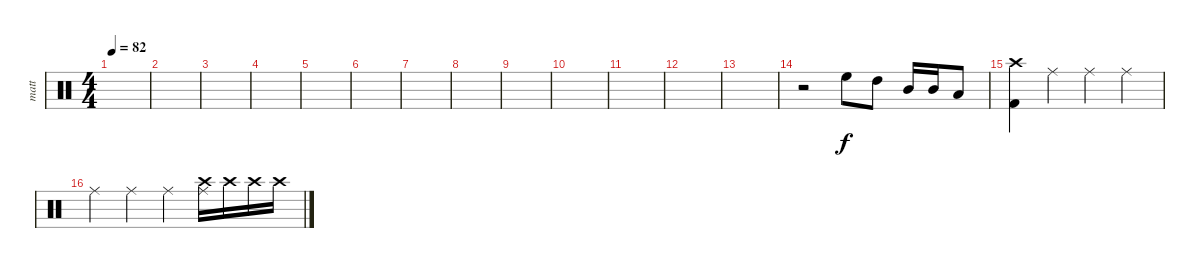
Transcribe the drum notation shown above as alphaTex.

\track ("matt" "matt") {instrument percussion}
\staff {score}
\articulation defaults
\ts (4 4)
\tempo 82
\clef neutral
\ks c
|
|
|
|
|
|
|
|
|
|
|
|
|
r.2 "High Floor Tom (hit)".8 "High Tom (hit)".8 "Mid Tom (hit)".16 "Mid Tom (hit)".16 "Low Tom (hit)".8 |
("Crash high (hit)" "Kick (hit) 2").4 "Ride (middle)".4 "Ride (middle)".4 "Ride (middle)".4 |
"Ride (middle)".4 "Ride (middle)".4 "Ride (middle)".4 ("Crash high (hit)" "Ride (middle)").16 "Crash high (hit)".16 "Crash high (hit)".16 "Crash high (hit)".16
